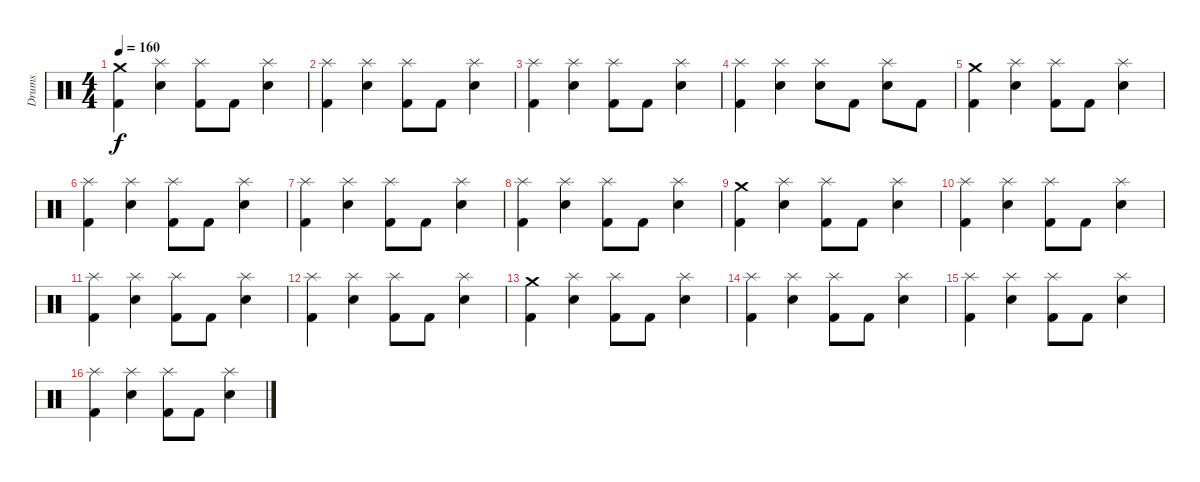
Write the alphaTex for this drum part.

\track ("Drums" "Drums") {instrument percussion}
\staff {score}
\articulation defaults
\ts (4 4)
\tempo 160
\clef neutral
\ks c
("Kick (hit) 2" "Crash medium (hit)").4{dy f} ("Splash (hit)" "Electric Snare (hit)").4 ("Kick (hit) 2" "Splash (hit)").8 "Kick (hit) 2".8 ("Splash (hit)" "Electric Snare (hit)").4 |
("Kick (hit) 2" "Splash (hit)").4 ("Splash (hit)" "Electric Snare (hit)").4 ("Kick (hit) 2" "Splash (hit)").8 "Kick (hit) 2".8 ("Splash (hit)" "Electric Snare (hit)").4 |
("Kick (hit) 2" "Splash (hit)").4 ("Electric Snare (hit)" "Splash (hit)").4 ("Kick (hit) 2" "Splash (hit)").8 "Kick (hit) 2".8 ("Electric Snare (hit)" "Splash (hit)").4 |
("Kick (hit) 2" "Splash (hit)").4 ("Electric Snare (hit)" "Splash (hit)").4 ("Snare (hit) 2" "Splash (hit)").8 "Kick (hit) 2".8 ("Electric Snare (hit)" "Splash (hit)").8 "Kick (hit) 2".8 |
("Kick (hit) 2" "Crash medium (hit)").4 ("Splash (hit)" "Electric Snare (hit)").4 ("Kick (hit) 2" "Splash (hit)").8 "Kick (hit) 2".8 ("Splash (hit)" "Electric Snare (hit)").4 |
("Kick (hit) 2" "Splash (hit)").4 ("Splash (hit)" "Electric Snare (hit)").4 ("Kick (hit) 2" "Splash (hit)").8 "Kick (hit) 2".8 ("Splash (hit)" "Electric Snare (hit)").4 |
("Kick (hit) 2" "Splash (hit)").4 ("Electric Snare (hit)" "Splash (hit)").4 ("Kick (hit) 2" "Splash (hit)").8 "Kick (hit) 2".8 ("Electric Snare (hit)" "Splash (hit)").4 |
("Kick (hit) 2" "Splash (hit)").4 ("Electric Snare (hit)" "Splash (hit)").4 ("Kick (hit) 2" "Splash (hit)").8 "Kick (hit) 2".8 ("Electric Snare (hit)" "Splash (hit)").4 |
("Kick (hit) 2" "Crash medium (hit)").4 ("Splash (hit)" "Electric Snare (hit)").4 ("Kick (hit) 2" "Splash (hit)").8 "Kick (hit) 2".8 ("Splash (hit)" "Electric Snare (hit)").4 |
("Kick (hit) 2" "Splash (hit)").4 ("Splash (hit)" "Electric Snare (hit)").4 ("Kick (hit) 2" "Splash (hit)").8 "Kick (hit) 2".8 ("Splash (hit)" "Electric Snare (hit)").4 |
("Kick (hit) 2" "Splash (hit)").4 ("Electric Snare (hit)" "Splash (hit)").4 ("Kick (hit) 2" "Splash (hit)").8 "Kick (hit) 2".8 ("Electric Snare (hit)" "Splash (hit)").4 |
("Kick (hit) 2" "Splash (hit)").4 ("Electric Snare (hit)" "Splash (hit)").4 ("Kick (hit) 2" "Splash (hit)").8 "Kick (hit) 2".8 ("Electric Snare (hit)" "Splash (hit)").4 |
("Kick (hit) 2" "Crash medium (hit)").4 ("Splash (hit)" "Electric Snare (hit)").4 ("Kick (hit) 2" "Splash (hit)").8 "Kick (hit) 2".8 ("Splash (hit)" "Electric Snare (hit)").4 |
("Kick (hit) 2" "Splash (hit)").4 ("Splash (hit)" "Electric Snare (hit)").4 ("Kick (hit) 2" "Splash (hit)").8 "Kick (hit) 2".8 ("Splash (hit)" "Electric Snare (hit)").4 |
("Kick (hit) 2" "Splash (hit)").4 ("Electric Snare (hit)" "Splash (hit)").4 ("Kick (hit) 2" "Splash (hit)").8 "Kick (hit) 2".8 ("Electric Snare (hit)" "Splash (hit)").4 |
("Kick (hit) 2" "Splash (hit)").4 ("Electric Snare (hit)" "Splash (hit)").4 ("Kick (hit) 2" "Splash (hit)").8 "Kick (hit) 2".8 ("Electric Snare (hit)" "Splash (hit)").4
